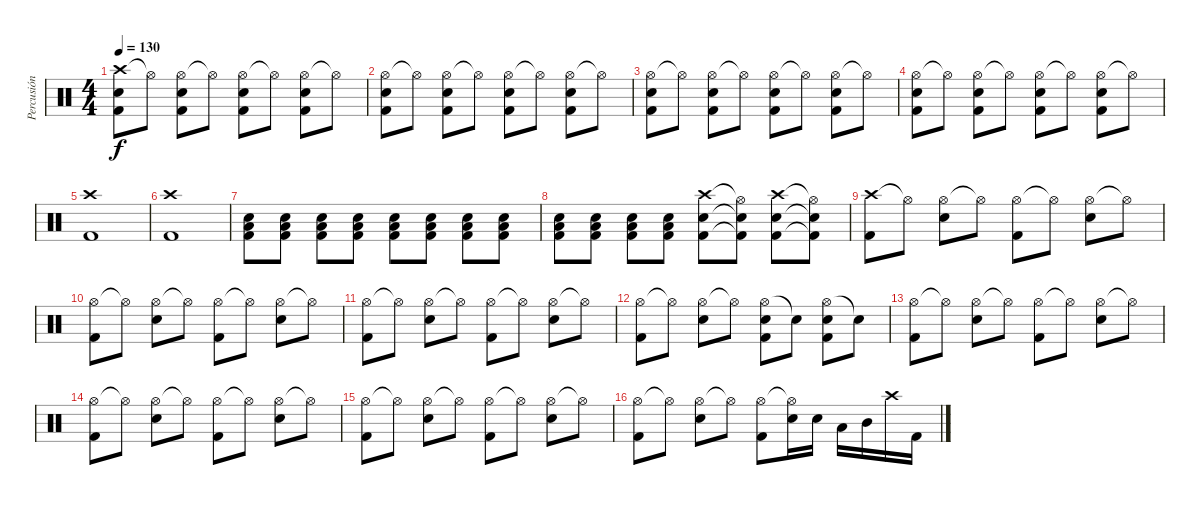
\track ("Percusión" "Percusión") {instrument percussion}
\staff {score}
\articulation defaults
\ts (4 4)
\tempo 130
\clef neutral
\ks c
("Crash high (hit)" "Snare (hit) 2" "Kick (hit) 2").8{dy f} "Hi-Hat (open)"{t}.8 ("Hi-Hat (open)" "Snare (hit) 2" "Kick (hit) 2").8 "Hi-Hat (open)"{t}.8 ("Hi-Hat (open)" "Snare (hit) 2" "Kick (hit) 2").8 "Hi-Hat (open)"{t}.8 ("Hi-Hat (open)" "Snare (hit) 2" "Kick (hit) 2").8 "Hi-Hat (open)"{t}.8 |
("Hi-Hat (open)" "Snare (hit) 2" "Kick (hit) 2").8 "Hi-Hat (open)"{t}.8 ("Hi-Hat (open)" "Snare (hit) 2" "Kick (hit) 2").8 "Hi-Hat (open)"{t}.8 ("Hi-Hat (open)" "Snare (hit) 2" "Kick (hit) 2").8 "Hi-Hat (open)"{t}.8 ("Hi-Hat (open)" "Snare (hit) 2" "Kick (hit) 2").8 "Hi-Hat (open)"{t}.8 |
("Hi-Hat (open)" "Snare (hit) 2" "Kick (hit) 2").8 "Hi-Hat (open)"{t}.8 ("Hi-Hat (open)" "Snare (hit) 2" "Kick (hit) 2").8 "Hi-Hat (open)"{t}.8 ("Hi-Hat (open)" "Snare (hit) 2" "Kick (hit) 2").8 "Hi-Hat (open)"{t}.8 ("Hi-Hat (open)" "Snare (hit) 2" "Kick (hit) 2").8 "Hi-Hat (open)"{t}.8 |
("Hi-Hat (open)" "Snare (hit) 2" "Kick (hit) 2").8 "Hi-Hat (open)"{t}.8 ("Hi-Hat (open)" "Snare (hit) 2" "Kick (hit) 2").8 "Hi-Hat (open)"{t}.8 ("Hi-Hat (open)" "Snare (hit) 2" "Kick (hit) 2").8 "Hi-Hat (open)"{t}.8 ("Hi-Hat (open)" "Snare (hit) 2" "Kick (hit) 2").8 "Hi-Hat (open)"{t}.8 |
("Crash high (hit)" "Kick (hit) 2").1 |
("Crash high (hit)" "Kick (hit) 2").1 |
("Low Floor Tom (hit)" "Snare (hit) 2" "Kick (hit) 2").8 ("Low Floor Tom (hit)" "Snare (hit) 2" "Kick (hit) 2").8 ("Low Floor Tom (hit)" "Snare (hit) 2" "Kick (hit) 2").8 ("Low Floor Tom (hit)" "Snare (hit) 2" "Kick (hit) 2").8 ("Low Floor Tom (hit)" "Snare (hit) 2" "Kick (hit) 2").8 ("Low Floor Tom (hit)" "Snare (hit) 2" "Kick (hit) 2").8 ("Low Floor Tom (hit)" "Snare (hit) 2" "Kick (hit) 2").8 ("Low Floor Tom (hit)" "Snare (hit) 2" "Kick (hit) 2").8 |
("Low Floor Tom (hit)" "Snare (hit) 2" "Kick (hit) 2").8 ("Low Floor Tom (hit)" "Snare (hit) 2" "Kick (hit) 2").8 ("Low Floor Tom (hit)" "Snare (hit) 2" "Kick (hit) 2").8 ("Low Floor Tom (hit)" "Snare (hit) 2" "Kick (hit) 2").8 ("Crash high (hit)" "Snare (hit) 2" "Kick (hit) 2").8 ("Hi-Hat (open)"{t} "Snare (hit) 2"{t} "Kick (hit) 2"{t}).8 ("Crash high (hit)" "Snare (hit) 2" "Kick (hit) 2").8 ("Hi-Hat (open)"{t} "Snare (hit) 2"{t} "Kick (hit) 2"{t}).8 |
("Crash high (hit)" "Kick (hit) 2").8 "Hi-Hat (open)"{t}.8 ("Hi-Hat (open)" "Snare (hit) 2").8 "Hi-Hat (open)"{t}.8 ("Hi-Hat (open)" "Kick (hit) 2").8 "Hi-Hat (open)"{t}.8 ("Hi-Hat (open)" "Snare (hit) 2").8 "Hi-Hat (open)"{t}.8 |
("Hi-Hat (open)" "Kick (hit) 2").8 "Hi-Hat (open)"{t}.8 ("Hi-Hat (open)" "Snare (hit) 2").8 "Hi-Hat (open)"{t}.8 ("Hi-Hat (open)" "Kick (hit) 2").8 "Hi-Hat (open)"{t}.8 ("Hi-Hat (open)" "Snare (hit) 2").8 "Hi-Hat (open)"{t}.8 |
("Hi-Hat (open)" "Kick (hit) 2").8 "Hi-Hat (open)"{t}.8 ("Hi-Hat (open)" "Snare (hit) 2").8 "Hi-Hat (open)"{t}.8 ("Hi-Hat (open)" "Kick (hit) 2").8 "Hi-Hat (open)"{t}.8 ("Hi-Hat (open)" "Snare (hit) 2").8 "Hi-Hat (open)"{t}.8 |
("Hi-Hat (open)" "Kick (hit) 2").8 "Hi-Hat (open)"{t}.8 ("Hi-Hat (open)" "Snare (hit) 2").8 "Hi-Hat (open)"{t}.8 ("Hi-Hat (open)" "Snare (hit) 2" "Kick (hit) 2").8 "Snare (hit)"{t}.8 ("Hi-Hat (open)" "Snare (hit) 2" "Kick (hit) 2").8 "Snare (hit)"{t}.8 |
("Hi-Hat (open)" "Kick (hit) 2").8 "Hi-Hat (open)"{t}.8 ("Hi-Hat (open)" "Snare (hit) 2").8 "Hi-Hat (open)"{t}.8 ("Hi-Hat (open)" "Kick (hit) 2").8 "Hi-Hat (open)"{t}.8 ("Hi-Hat (open)" "Snare (hit) 2").8 "Hi-Hat (open)"{t}.8 |
("Hi-Hat (open)" "Kick (hit) 2").8 "Hi-Hat (open)"{t}.8 ("Hi-Hat (open)" "Snare (hit) 2").8 "Hi-Hat (open)"{t}.8 ("Hi-Hat (open)" "Kick (hit) 2").8 "Hi-Hat (open)"{t}.8 ("Hi-Hat (open)" "Snare (hit) 2").8 "Hi-Hat (open)"{t}.8 |
("Hi-Hat (open)" "Kick (hit) 2").8 "Hi-Hat (open)"{t}.8 ("Hi-Hat (open)" "Snare (hit) 2").8 "Hi-Hat (open)"{t}.8 ("Hi-Hat (open)" "Kick (hit) 2").8 "Hi-Hat (open)"{t}.8 ("Hi-Hat (open)" "Snare (hit) 2").8 "Hi-Hat (open)"{t}.8 |
("Hi-Hat (open)" "Kick (hit) 2").8 "Hi-Hat (open)"{t}.8 ("Hi-Hat (open)" "Snare (hit) 2").8 "Hi-Hat (open)"{t}.8 ("Hi-Hat (open)" "Kick (hit) 2").8 ("Hi-Hat (open)"{t} "Snare (hit) 2").16 "Snare (hit) 2".16 "Low Tom (hit)".16 "Mid Tom (hit)".16 "Crash high (hit)".16 "Kick (hit) 2".16
